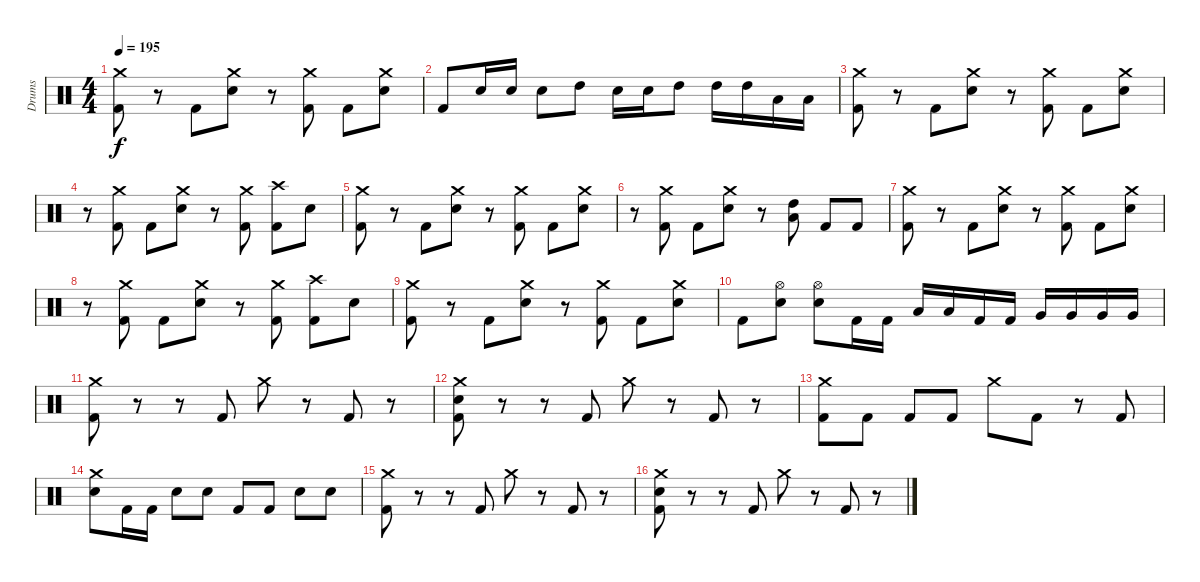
\track ("Drums" "Drums") {instrument percussion}
\staff {score}
\articulation defaults
\ts (4 4)
\tempo 195
\clef neutral
\ks c
("Crash medium (hit)" "Kick (hit) 2").8{dy f} r.8 "Kick (hit) 2".8 ("Crash medium (hit)" "Electric Snare (hit)").8 r.8 ("Crash medium (hit)" "Kick (hit) 2").8 "Kick (hit) 2".8 ("Crash medium (hit)" "Electric Snare (hit)").8 |
"Kick (hit) 2".8 "Electric Snare (hit)".16 "Electric Snare (hit)".16 "Electric Snare (hit)".8 "High Tom (hit)".8 "Electric Snare (hit)".16 "Electric Snare (hit)".16 "High Tom (hit)".8 "High Tom (hit)".16 "High Tom (hit)".16 "Low Tom (hit)".16 "Low Tom (hit)".16 |
("Crash medium (hit)" "Kick (hit) 2").8 r.8 "Kick (hit) 2".8 ("Crash medium (hit)" "Electric Snare (hit)").8 r.8 ("Crash medium (hit)" "Kick (hit) 2").8 "Kick (hit) 2".8 ("Crash medium (hit)" "Electric Snare (hit)").8 |
r.8 ("Crash medium (hit)" "Kick (hit) 2").8 "Kick (hit) 2".8 ("Crash medium (hit)" "Electric Snare (hit)").8 r.8 ("Crash medium (hit)" "Kick (hit) 2").8 ("Crash high (hit)" "Kick (hit) 2").8 "Electric Snare (hit)".8 |
("Crash medium (hit)" "Kick (hit) 2").8 r.8 "Kick (hit) 2".8 ("Crash medium (hit)" "Electric Snare (hit)").8 r.8 ("Crash medium (hit)" "Kick (hit) 2").8 "Kick (hit) 2".8 ("Crash medium (hit)" "Electric Snare (hit)").8 |
r.8 ("Crash medium (hit)" "Kick (hit) 2").8 "Kick (hit) 2".8 ("Crash medium (hit)" "Electric Snare (hit)").8 r.8 ("High Tom (hit)" "Low Tom (hit)").8 "Kick (hit) 2".8 "Kick (hit) 2".8 |
("Crash medium (hit)" "Kick (hit) 2").8 r.8 "Kick (hit) 2".8 ("Crash medium (hit)" "Electric Snare (hit)").8 r.8 ("Crash medium (hit)" "Kick (hit) 2").8 "Kick (hit) 2".8 ("Crash medium (hit)" "Electric Snare (hit)").8 |
r.8 ("Crash medium (hit)" "Kick (hit) 2").8 "Kick (hit) 2".8 ("Crash medium (hit)" "Electric Snare (hit)").8 r.8 ("Crash medium (hit)" "Kick (hit) 2").8 ("Crash high (hit)" "Kick (hit) 2").8 "Electric Snare (hit)".8 |
("Crash medium (hit)" "Kick (hit) 2").8 r.8 "Kick (hit) 2".8 ("Crash medium (hit)" "Electric Snare (hit)").8 r.8 ("Crash medium (hit)" "Kick (hit) 2").8 "Kick (hit) 2".8 ("Crash medium (hit)" "Electric Snare (hit)").8 |
"Kick (hit) 2".8 ("Hi-Hat (open)" "Electric Snare (hit)").8 ("Electric Snare (hit)" "Hi-Hat (open)").8 "Kick (hit) 2".16 "Kick (hit) 2".16 "Low Tom (hit)".16 "Low Tom (hit)".16 "Kick (hit) 2".16 "Kick (hit) 2".16 "Very Low Tom (hit)".16 "Very Low Tom (hit)".16 "Very Low Tom (hit)".16 "Very Low Tom (hit)".16 |
("Crash medium (hit)" "Kick (hit) 2").8 r.8 r.8 "Kick (hit) 2".8 "Crash medium (hit)".8 r.8 "Kick (hit) 2".8 r.8 |
("Crash medium (hit)" "Electric Snare (hit)" "Kick (hit) 2").8 r.8 r.8 "Kick (hit) 2".8 "Crash medium (hit)".8 r.8 "Kick (hit) 2".8 r.8 |
("Crash medium (hit)" "Kick (hit) 2").8 "Kick (hit) 2".8 "Kick (hit) 2".8 "Kick (hit) 2".8 "Crash medium (hit)".8 "Kick (hit) 2".8 r.8 "Kick (hit) 2".8 |
("Crash medium (hit)" "Electric Snare (hit)").8 "Kick (hit) 2".16 "Kick (hit) 2".16 "Electric Snare (hit)".8 "Electric Snare (hit)".8 "Kick (hit) 2".8 "Kick (hit) 2".8 "Electric Snare (hit)".8 "Electric Snare (hit)".8 |
("Crash medium (hit)" "Kick (hit) 2").8 r.8 r.8 "Kick (hit) 2".8 "Crash medium (hit)".8 r.8 "Kick (hit) 2".8 r.8 |
("Crash medium (hit)" "Electric Snare (hit)" "Kick (hit) 2").8 r.8 r.8 "Kick (hit) 2".8 "Crash medium (hit)".8 r.8 "Kick (hit) 2".8 r.8
